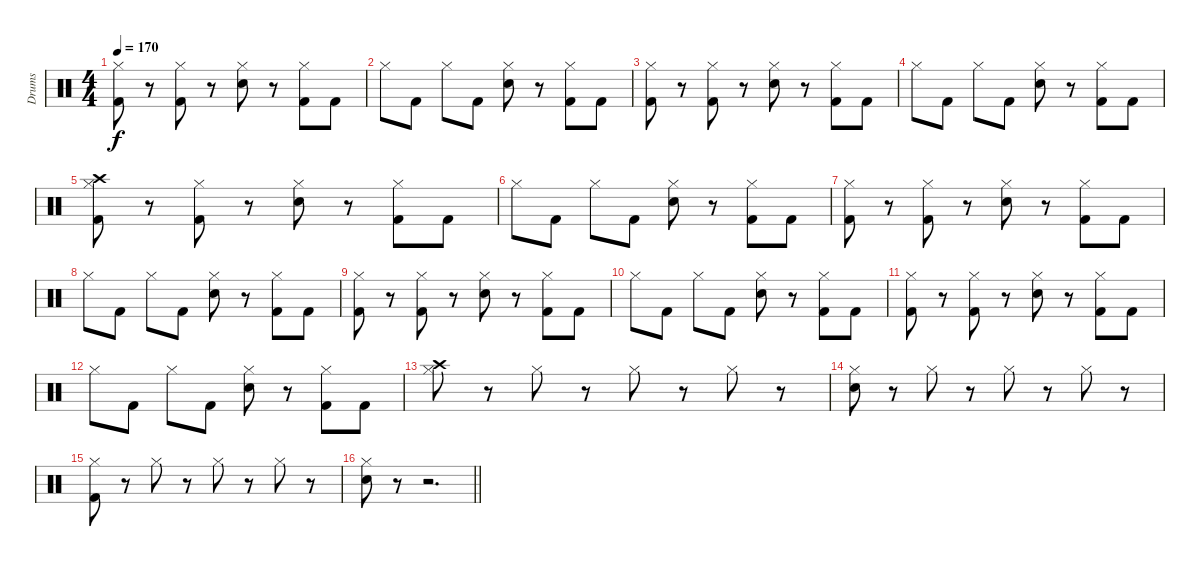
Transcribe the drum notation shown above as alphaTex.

\track ("Drums" "Drums") {instrument percussion}
\staff {score}
\articulation defaults
\ts (4 4)
\tempo 170
\clef neutral
\ks c
("Hi-Hat (closed)" "Kick (hit) 2").8{dy f} r.8 ("Hi-Hat (closed)" "Kick (hit) 2").8 r.8 ("Hi-Hat (closed)" "Electric Snare (hit)").8 r.8 ("Hi-Hat (closed)" "Kick (hit) 2").8 "Kick (hit) 2".8 |
"Hi-Hat (closed)".8 "Kick (hit) 2".8 "Hi-Hat (closed)".8 "Kick (hit) 2".8 ("Hi-Hat (closed)" "Electric Snare (hit)").8 r.8 ("Hi-Hat (closed)" "Kick (hit) 2").8 "Kick (hit) 2".8 |
("Hi-Hat (closed)" "Kick (hit) 2").8 r.8 ("Hi-Hat (closed)" "Kick (hit) 2").8 r.8 ("Hi-Hat (closed)" "Electric Snare (hit)").8 r.8 ("Hi-Hat (closed)" "Kick (hit) 2").8 "Kick (hit) 2".8 |
"Hi-Hat (closed)".8 "Kick (hit) 2".8 "Hi-Hat (closed)".8 "Kick (hit) 2".8 ("Hi-Hat (closed)" "Electric Snare (hit)").8 r.8 ("Hi-Hat (closed)" "Kick (hit) 2").8 "Kick (hit) 2".8 |
("Hi-Hat (closed)" "Crash high (hit)" "Kick (hit) 2").8 r.8 ("Hi-Hat (closed)" "Kick (hit) 2").8 r.8 ("Hi-Hat (closed)" "Electric Snare (hit)").8 r.8 ("Hi-Hat (closed)" "Kick (hit) 2").8 "Kick (hit) 2".8 |
"Hi-Hat (closed)".8 "Kick (hit) 2".8 "Hi-Hat (closed)".8 "Kick (hit) 2".8 ("Hi-Hat (closed)" "Electric Snare (hit)").8 r.8 ("Hi-Hat (closed)" "Kick (hit) 2").8 "Kick (hit) 2".8 |
("Hi-Hat (closed)" "Kick (hit) 2").8 r.8 ("Hi-Hat (closed)" "Kick (hit) 2").8 r.8 ("Hi-Hat (closed)" "Electric Snare (hit)").8 r.8 ("Hi-Hat (closed)" "Kick (hit) 2").8 "Kick (hit) 2".8 |
"Hi-Hat (closed)".8 "Kick (hit) 2".8 "Hi-Hat (closed)".8 "Kick (hit) 2".8 ("Hi-Hat (closed)" "Electric Snare (hit)").8 r.8 ("Hi-Hat (closed)" "Kick (hit) 2").8 "Kick (hit) 2".8 |
("Hi-Hat (closed)" "Kick (hit) 2").8 r.8 ("Hi-Hat (closed)" "Kick (hit) 2").8 r.8 ("Hi-Hat (closed)" "Electric Snare (hit)").8 r.8 ("Hi-Hat (closed)" "Kick (hit) 2").8 "Kick (hit) 2".8 |
"Hi-Hat (closed)".8 "Kick (hit) 2".8 "Hi-Hat (closed)".8 "Kick (hit) 2".8 ("Hi-Hat (closed)" "Electric Snare (hit)").8 r.8 ("Hi-Hat (closed)" "Kick (hit) 2").8 "Kick (hit) 2".8 |
("Hi-Hat (closed)" "Kick (hit) 2").8 r.8 ("Hi-Hat (closed)" "Kick (hit) 2").8 r.8 ("Hi-Hat (closed)" "Electric Snare (hit)").8 r.8 ("Hi-Hat (closed)" "Kick (hit) 2").8 "Kick (hit) 2".8 |
"Hi-Hat (closed)".8 "Kick (hit) 2".8 "Hi-Hat (closed)".8 "Kick (hit) 2".8 ("Hi-Hat (closed)" "Electric Snare (hit)").8 r.8 ("Hi-Hat (closed)" "Kick (hit) 2").8 "Kick (hit) 2".8 |
("Crash high (hit)" "Hi-Hat (closed)").8 r.8 "Hi-Hat (closed)".8 r.8 "Hi-Hat (closed)".8 r.8 "Hi-Hat (closed)".8 r.8 |
("Electric Snare (hit)" "Hi-Hat (closed)").8 r.8 "Hi-Hat (closed)".8 r.8 "Hi-Hat (closed)".8 r.8 "Hi-Hat (closed)".8 r.8 |
("Kick (hit) 2" "Hi-Hat (closed)").8 r.8 "Hi-Hat (closed)".8 r.8 "Hi-Hat (closed)".8 r.8 "Hi-Hat (closed)".8 r.8 |
\barLineRight lightlight
("Electric Snare (hit)" "Hi-Hat (closed)").8 r.8 r.2{d}
